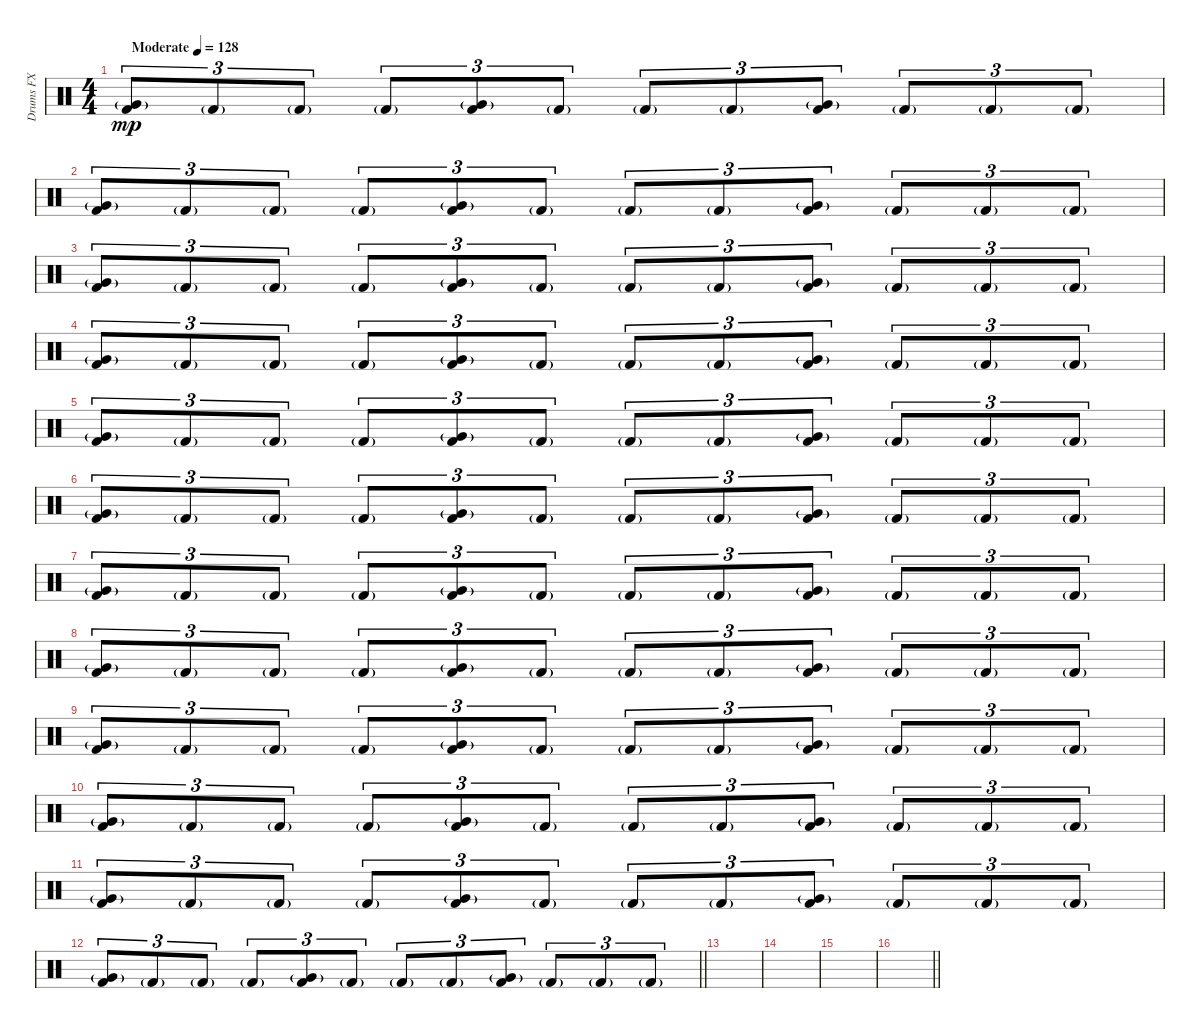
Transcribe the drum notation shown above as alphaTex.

\track ("Drums FX" "Drums FX") {instrument percussion}
\staff {score}
\articulation defaults
\ts (4 4)
\tempo (128 "Moderate")
\clef neutral
\ks c
("Very Low Tom (hit)"{g} "Kick (hit) 2").8{tu (3 2) dy mp} "Kick (hit) 2"{g}.8{tu (3 2)} "Kick (hit) 2"{g}.8{tu (3 2)} "Kick (hit) 2"{g}.8{tu (3 2)} ("Very Low Tom (hit)"{g} "Kick (hit) 2").8{tu (3 2)} "Kick (hit) 2"{g}.8{tu (3 2)} "Kick (hit) 2"{g}.8{tu (3 2)} "Kick (hit) 2"{g}.8{tu (3 2)} ("Very Low Tom (hit)"{g} "Kick (hit) 2").8{tu (3 2)} "Kick (hit) 2"{g}.8{tu (3 2)} "Kick (hit) 2"{g}.8{tu (3 2)} "Kick (hit) 2"{g}.8{tu (3 2)} |
("Very Low Tom (hit)"{g} "Kick (hit) 2").8{tu (3 2)} "Kick (hit) 2"{g}.8{tu (3 2)} "Kick (hit) 2"{g}.8{tu (3 2)} "Kick (hit) 2"{g}.8{tu (3 2)} ("Very Low Tom (hit)"{g} "Kick (hit) 2").8{tu (3 2)} "Kick (hit) 2"{g}.8{tu (3 2)} "Kick (hit) 2"{g}.8{tu (3 2)} "Kick (hit) 2"{g}.8{tu (3 2)} ("Very Low Tom (hit)"{g} "Kick (hit) 2").8{tu (3 2)} "Kick (hit) 2"{g}.8{tu (3 2)} "Kick (hit) 2"{g}.8{tu (3 2)} "Kick (hit) 2"{g}.8{tu (3 2)} |
("Very Low Tom (hit)"{g} "Kick (hit) 2").8{tu (3 2)} "Kick (hit) 2"{g}.8{tu (3 2)} "Kick (hit) 2"{g}.8{tu (3 2)} "Kick (hit) 2"{g}.8{tu (3 2)} ("Very Low Tom (hit)"{g} "Kick (hit) 2").8{tu (3 2)} "Kick (hit) 2"{g}.8{tu (3 2)} "Kick (hit) 2"{g}.8{tu (3 2)} "Kick (hit) 2"{g}.8{tu (3 2)} ("Very Low Tom (hit)"{g} "Kick (hit) 2").8{tu (3 2)} "Kick (hit) 2"{g}.8{tu (3 2)} "Kick (hit) 2"{g}.8{tu (3 2)} "Kick (hit) 2"{g}.8{tu (3 2)} |
("Very Low Tom (hit)"{g} "Kick (hit) 2").8{tu (3 2)} "Kick (hit) 2"{g}.8{tu (3 2)} "Kick (hit) 2"{g}.8{tu (3 2)} "Kick (hit) 2"{g}.8{tu (3 2)} ("Very Low Tom (hit)"{g} "Kick (hit) 2").8{tu (3 2)} "Kick (hit) 2"{g}.8{tu (3 2)} "Kick (hit) 2"{g}.8{tu (3 2)} "Kick (hit) 2"{g}.8{tu (3 2)} ("Very Low Tom (hit)"{g} "Kick (hit) 2").8{tu (3 2)} "Kick (hit) 2"{g}.8{tu (3 2)} "Kick (hit) 2"{g}.8{tu (3 2)} "Kick (hit) 2"{g}.8{tu (3 2)} |
("Very Low Tom (hit)"{g} "Kick (hit) 2").8{tu (3 2)} "Kick (hit) 2"{g}.8{tu (3 2)} "Kick (hit) 2"{g}.8{tu (3 2)} "Kick (hit) 2"{g}.8{tu (3 2)} ("Very Low Tom (hit)"{g} "Kick (hit) 2").8{tu (3 2)} "Kick (hit) 2"{g}.8{tu (3 2)} "Kick (hit) 2"{g}.8{tu (3 2)} "Kick (hit) 2"{g}.8{tu (3 2)} ("Very Low Tom (hit)"{g} "Kick (hit) 2").8{tu (3 2)} "Kick (hit) 2"{g}.8{tu (3 2)} "Kick (hit) 2"{g}.8{tu (3 2)} "Kick (hit) 2"{g}.8{tu (3 2)} |
("Very Low Tom (hit)"{g} "Kick (hit) 2").8{tu (3 2)} "Kick (hit) 2"{g}.8{tu (3 2)} "Kick (hit) 2"{g}.8{tu (3 2)} "Kick (hit) 2"{g}.8{tu (3 2)} ("Very Low Tom (hit)"{g} "Kick (hit) 2").8{tu (3 2)} "Kick (hit) 2"{g}.8{tu (3 2)} "Kick (hit) 2"{g}.8{tu (3 2)} "Kick (hit) 2"{g}.8{tu (3 2)} ("Very Low Tom (hit)"{g} "Kick (hit) 2").8{tu (3 2)} "Kick (hit) 2"{g}.8{tu (3 2)} "Kick (hit) 2"{g}.8{tu (3 2)} "Kick (hit) 2"{g}.8{tu (3 2)} |
("Very Low Tom (hit)"{g} "Kick (hit) 2").8{tu (3 2)} "Kick (hit) 2"{g}.8{tu (3 2)} "Kick (hit) 2"{g}.8{tu (3 2)} "Kick (hit) 2"{g}.8{tu (3 2)} ("Very Low Tom (hit)"{g} "Kick (hit) 2").8{tu (3 2)} "Kick (hit) 2"{g}.8{tu (3 2)} "Kick (hit) 2"{g}.8{tu (3 2)} "Kick (hit) 2"{g}.8{tu (3 2)} ("Very Low Tom (hit)"{g} "Kick (hit) 2").8{tu (3 2)} "Kick (hit) 2"{g}.8{tu (3 2)} "Kick (hit) 2"{g}.8{tu (3 2)} "Kick (hit) 2"{g}.8{tu (3 2)} |
("Very Low Tom (hit)"{g} "Kick (hit) 2").8{tu (3 2)} "Kick (hit) 2"{g}.8{tu (3 2)} "Kick (hit) 2"{g}.8{tu (3 2)} "Kick (hit) 2"{g}.8{tu (3 2)} ("Very Low Tom (hit)"{g} "Kick (hit) 2").8{tu (3 2)} "Kick (hit) 2"{g}.8{tu (3 2)} "Kick (hit) 2"{g}.8{tu (3 2)} "Kick (hit) 2"{g}.8{tu (3 2)} ("Very Low Tom (hit)"{g} "Kick (hit) 2").8{tu (3 2)} "Kick (hit) 2"{g}.8{tu (3 2)} "Kick (hit) 2"{g}.8{tu (3 2)} "Kick (hit) 2"{g}.8{tu (3 2)} |
("Very Low Tom (hit)"{g} "Kick (hit) 2").8{tu (3 2)} "Kick (hit) 2"{g}.8{tu (3 2)} "Kick (hit) 2"{g}.8{tu (3 2)} "Kick (hit) 2"{g}.8{tu (3 2)} ("Very Low Tom (hit)"{g} "Kick (hit) 2").8{tu (3 2)} "Kick (hit) 2"{g}.8{tu (3 2)} "Kick (hit) 2"{g}.8{tu (3 2)} "Kick (hit) 2"{g}.8{tu (3 2)} ("Very Low Tom (hit)"{g} "Kick (hit) 2").8{tu (3 2)} "Kick (hit) 2"{g}.8{tu (3 2)} "Kick (hit) 2"{g}.8{tu (3 2)} "Kick (hit) 2"{g}.8{tu (3 2)} |
("Very Low Tom (hit)"{g} "Kick (hit) 2").8{tu (3 2)} "Kick (hit) 2"{g}.8{tu (3 2)} "Kick (hit) 2"{g}.8{tu (3 2)} "Kick (hit) 2"{g}.8{tu (3 2)} ("Very Low Tom (hit)"{g} "Kick (hit) 2").8{tu (3 2)} "Kick (hit) 2"{g}.8{tu (3 2)} "Kick (hit) 2"{g}.8{tu (3 2)} "Kick (hit) 2"{g}.8{tu (3 2)} ("Very Low Tom (hit)"{g} "Kick (hit) 2").8{tu (3 2)} "Kick (hit) 2"{g}.8{tu (3 2)} "Kick (hit) 2"{g}.8{tu (3 2)} "Kick (hit) 2"{g}.8{tu (3 2)} |
("Very Low Tom (hit)"{g} "Kick (hit) 2").8{tu (3 2)} "Kick (hit) 2"{g}.8{tu (3 2)} "Kick (hit) 2"{g}.8{tu (3 2)} "Kick (hit) 2"{g}.8{tu (3 2)} ("Very Low Tom (hit)"{g} "Kick (hit) 2").8{tu (3 2)} "Kick (hit) 2"{g}.8{tu (3 2)} "Kick (hit) 2"{g}.8{tu (3 2)} "Kick (hit) 2"{g}.8{tu (3 2)} ("Very Low Tom (hit)"{g} "Kick (hit) 2").8{tu (3 2)} "Kick (hit) 2"{g}.8{tu (3 2)} "Kick (hit) 2"{g}.8{tu (3 2)} "Kick (hit) 2"{g}.8{tu (3 2)} |
\barLineRight lightlight
("Very Low Tom (hit)"{g} "Kick (hit) 2").8{tu (3 2)} "Kick (hit) 2"{g}.8{tu (3 2)} "Kick (hit) 2"{g}.8{tu (3 2)} "Kick (hit) 2"{g}.8{tu (3 2)} ("Very Low Tom (hit)"{g} "Kick (hit) 2").8{tu (3 2)} "Kick (hit) 2"{g}.8{tu (3 2)} "Kick (hit) 2"{g}.8{tu (3 2)} "Kick (hit) 2"{g}.8{tu (3 2)} ("Very Low Tom (hit)"{g} "Kick (hit) 2").8{tu (3 2)} "Kick (hit) 2"{g}.8{tu (3 2)} "Kick (hit) 2"{g}.8{tu (3 2)} "Kick (hit) 2"{g}.8{tu (3 2)} |
\section ("" "")
|
|
|
\barLineRight lightlight
